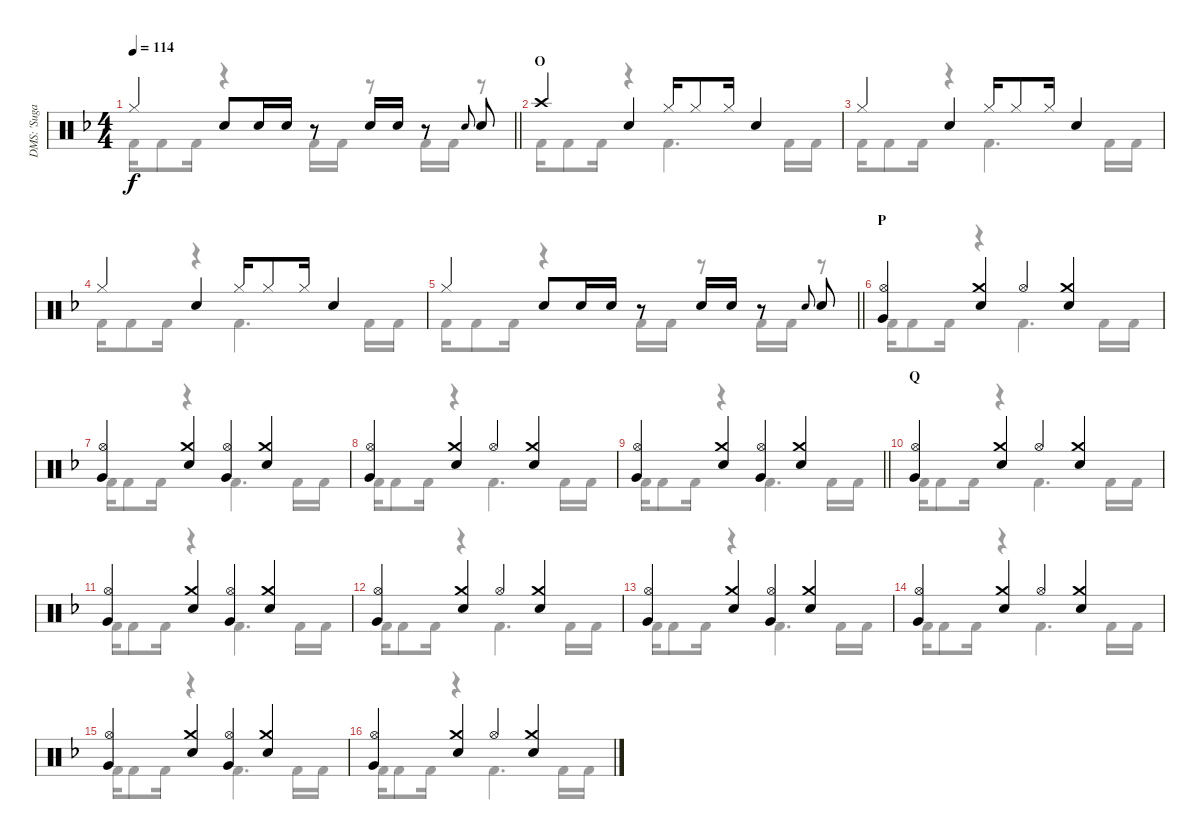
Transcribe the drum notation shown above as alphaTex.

\track ("DMS: 'Sugarfoot' Moffett" "DMS: 'Suga") {instrument percussion}
\staff {score}
\articulation defaults
\voice
\ts (4 4)
\tempo 114
\clef neutral
\barLineRight lightlight
\ks f "Hi-Hat (closed)".4{dy f} "Snare (hit) 2".8 "Electric Snare (hit)".16 "Electric Snare (hit)".16
r.8 "Electric Snare (hit)".16 "Electric Snare (hit)".16 r.8 "Electric Snare (hit)".8{gr onbeat} "Snare (hit) 2".8 |
\section ("" "O")
"Crash high (hit)".4 "Snare (hit) 2".4 "Hi-Hat (closed)".16 "Hi-Hat (closed)".8 "Hi-Hat (closed)".16 "Snare (hit) 2".4 |
"Hi-Hat (closed)".4 "Snare (hit) 2".4 "Hi-Hat (closed)".16 "Hi-Hat (closed)".8 "Hi-Hat (closed)".16 "Snare (hit) 2".4 |
"Hi-Hat (closed)".4 "Snare (hit) 2".4 "Hi-Hat (closed)".16 "Hi-Hat (closed)".8 "Hi-Hat (closed)".16 "Snare (hit) 2".4 |
\barLineRight lightlight "Hi-Hat (closed)".4 "Snare (hit) 2".8 "Electric Snare (hit)".16 "Electric Snare (hit)".16
r.8 "Electric Snare (hit)".16 "Electric Snare (hit)".16 r.8 "Electric Snare (hit)".8{gr onbeat} "Snare (hit) 2".8 |
\section ("" "P")
("Hi-Hat (open)" "Very Low Tom (hit)").4 ("Crash medium (hit)" "Snare (hit) 2").4 "Hi-Hat (open)".4 ("Crash medium (hit)" "Snare (hit) 2").4 |
("Hi-Hat (open)" "Very Low Tom (hit)").4 ("Crash medium (hit)" "Snare (hit) 2").4 ("Hi-Hat (open)" "Very Low Tom (hit)").4 ("Crash medium (hit)" "Snare (hit) 2").4 |
("Hi-Hat (open)" "Very Low Tom (hit)").4 ("Crash medium (hit)" "Snare (hit) 2").4 "Hi-Hat (open)".4 ("Crash medium (hit)" "Snare (hit) 2").4 |
\barLineRight lightlight
("Hi-Hat (open)" "Very Low Tom (hit)").4 ("Crash medium (hit)" "Snare (hit) 2").4 ("Hi-Hat (open)" "Very Low Tom (hit)").4 ("Crash medium (hit)" "Snare (hit) 2").4 |
\section ("" "Q")
("Hi-Hat (open)" "Very Low Tom (hit)").4 ("Crash medium (hit)" "Snare (hit) 2").4 "Hi-Hat (open)".4 ("Crash medium (hit)" "Snare (hit) 2").4 |
("Hi-Hat (open)" "Very Low Tom (hit)").4 ("Crash medium (hit)" "Snare (hit) 2").4 ("Hi-Hat (open)" "Very Low Tom (hit)").4 ("Crash medium (hit)" "Snare (hit) 2").4 |
("Hi-Hat (open)" "Very Low Tom (hit)").4 ("Crash medium (hit)" "Snare (hit) 2").4 "Hi-Hat (open)".4 ("Crash medium (hit)" "Snare (hit) 2").4 |
("Hi-Hat (open)" "Very Low Tom (hit)").4 ("Crash medium (hit)" "Snare (hit) 2").4 ("Hi-Hat (open)" "Very Low Tom (hit)").4 ("Crash medium (hit)" "Snare (hit) 2").4 |
("Hi-Hat (open)" "Very Low Tom (hit)").4 ("Crash medium (hit)" "Snare (hit) 2").4 "Hi-Hat (open)".4 ("Crash medium (hit)" "Snare (hit) 2").4 |
("Hi-Hat (open)" "Very Low Tom (hit)").4 ("Crash medium (hit)" "Snare (hit) 2").4 ("Hi-Hat (open)" "Very Low Tom (hit)").4 ("Crash medium (hit)" "Snare (hit) 2").4 |
("Hi-Hat (open)" "Very Low Tom (hit)").4 ("Crash medium (hit)" "Snare (hit) 2").4 "Hi-Hat (open)".4 ("Crash medium (hit)" "Snare (hit) 2").4
\voice
\clef neutral
\ottava regular
\simile none
\barLineRight lightlight
\ks f "Kick (hit) 2".16{dy f} "Kick (hit) 2".8 "Kick (hit) 2".16
r.4 "Kick (hit) 2".16 "Kick (hit) 2".16 r.8 "Kick (hit) 2".16 "Kick (hit) 2".16 r.8 |
"Kick (hit) 2".16 "Kick (hit) 2".8 "Kick (hit) 2".16 r.4 "Kick (hit) 2".4{d} "Kick (hit) 2".16 "Kick (hit) 2".16 |
"Kick (hit) 2".16 "Kick (hit) 2".8 "Kick (hit) 2".16 r.4 "Kick (hit) 2".4{d} "Kick (hit) 2".16 "Kick (hit) 2".16 |
"Kick (hit) 2".16 "Kick (hit) 2".8 "Kick (hit) 2".16 r.4 "Kick (hit) 2".4{d} "Kick (hit) 2".16 "Kick (hit) 2".16 |
\barLineRight lightlight "Kick (hit) 2".16 "Kick (hit) 2".8 "Kick (hit) 2".16
r.4 "Kick (hit) 2".16 "Kick (hit) 2".16 r.8 "Kick (hit) 2".16 "Kick (hit) 2".16 r.8 |
"Kick (hit) 2".16 "Kick (hit) 2".8 "Kick (hit) 2".16 r.4 "Kick (hit) 2".4{d} "Kick (hit) 2".16 "Kick (hit) 2".16 |
"Kick (hit) 2".16 "Kick (hit) 2".8 "Kick (hit) 2".16 r.4 "Kick (hit) 2".4{d} "Kick (hit) 2".16 "Kick (hit) 2".16 |
"Kick (hit) 2".16 "Kick (hit) 2".8 "Kick (hit) 2".16 r.4 "Kick (hit) 2".4{d} "Kick (hit) 2".16 "Kick (hit) 2".16 |
\barLineRight lightlight "Kick (hit) 2".16 "Kick (hit) 2".8 "Kick (hit) 2".16
r.4 "Kick (hit) 2".4{d} "Kick (hit) 2".16 "Kick (hit) 2".16 |
"Kick (hit) 2".16 "Kick (hit) 2".8 "Kick (hit) 2".16 r.4 "Kick (hit) 2".4{d} "Kick (hit) 2".16 "Kick (hit) 2".16 |
"Kick (hit) 2".16 "Kick (hit) 2".8 "Kick (hit) 2".16 r.4 "Kick (hit) 2".4{d} "Kick (hit) 2".16 "Kick (hit) 2".16 |
"Kick (hit) 2".16 "Kick (hit) 2".8 "Kick (hit) 2".16 r.4 "Kick (hit) 2".4{d} "Kick (hit) 2".16 "Kick (hit) 2".16 |
"Kick (hit) 2".16 "Kick (hit) 2".8 "Kick (hit) 2".16 r.4 "Kick (hit) 2".4{d} "Kick (hit) 2".16 "Kick (hit) 2".16 |
"Kick (hit) 2".16 "Kick (hit) 2".8 "Kick (hit) 2".16 r.4 "Kick (hit) 2".4{d} "Kick (hit) 2".16 "Kick (hit) 2".16 |
"Kick (hit) 2".16 "Kick (hit) 2".8 "Kick (hit) 2".16 r.4 "Kick (hit) 2".4{d} "Kick (hit) 2".16 "Kick (hit) 2".16 |
"Kick (hit) 2".16 "Kick (hit) 2".8 "Kick (hit) 2".16 r.4 "Kick (hit) 2".4{d} "Kick (hit) 2".16 "Kick (hit) 2".16
